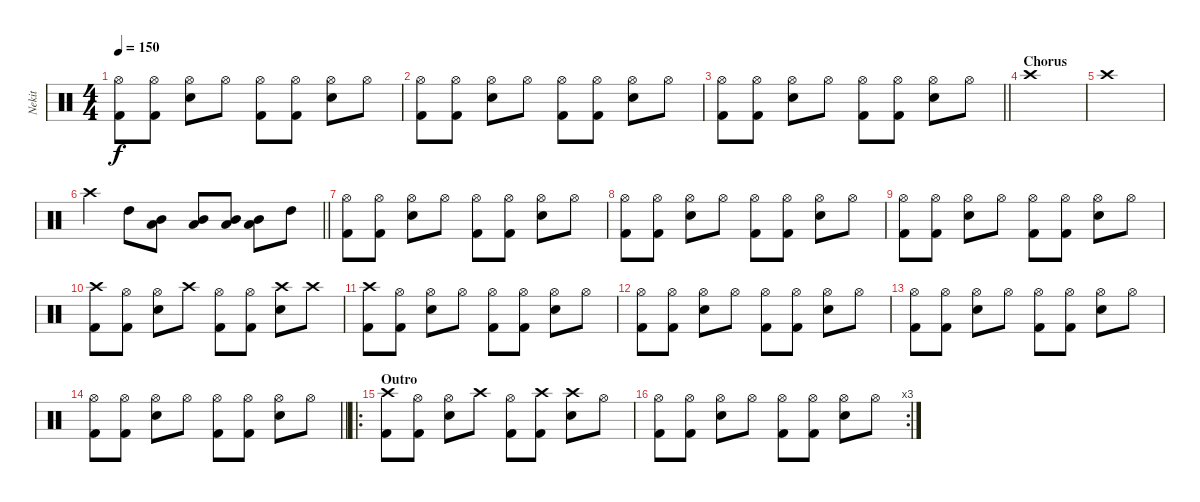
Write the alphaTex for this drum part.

\track ("Nekit" "Nekit") {instrument percussion}
\staff {score}
\articulation defaults
\ts (4 4)
\tempo 150
\clef neutral
\ks c
("Hi-Hat (open)" "Kick (hit) 2").8{dy f} ("Hi-Hat (open)" "Kick (hit) 2").8 ("Hi-Hat (open)" "Electric Snare (hit)").8 "Hi-Hat (open)".8 ("Hi-Hat (open)" "Kick (hit) 2").8 ("Hi-Hat (open)" "Kick (hit) 2").8 ("Hi-Hat (open)" "Electric Snare (hit)").8 "Hi-Hat (open)".8 |
("Hi-Hat (open)" "Kick (hit) 2").8 ("Hi-Hat (open)" "Kick (hit) 2").8 ("Hi-Hat (open)" "Electric Snare (hit)").8 "Hi-Hat (open)".8 ("Hi-Hat (open)" "Kick (hit) 2").8 ("Hi-Hat (open)" "Kick (hit) 2").8 ("Hi-Hat (open)" "Electric Snare (hit)").8 "Hi-Hat (open)".8 |
\barLineRight lightlight
("Hi-Hat (open)" "Kick (hit) 2").8 ("Hi-Hat (open)" "Kick (hit) 2").8 ("Hi-Hat (open)" "Electric Snare (hit)").8 "Hi-Hat (open)".8 ("Hi-Hat (open)" "Kick (hit) 2").8 ("Hi-Hat (open)" "Kick (hit) 2").8 ("Hi-Hat (open)" "Electric Snare (hit)").8 "Hi-Hat (open)".8 |
\section ("" "Chorus")
"Crash high (hit)".1 |
"Crash high (hit)".1 |
\barLineRight lightlight "Crash high (hit)".4 "High Tom (hit)".8
("Mid Tom (hit)" "Low Floor Tom (hit)").8 ("Mid Tom (hit)" "Low Floor Tom (hit)").8 ("Mid Tom (hit)" "Low Floor Tom (hit)").8 ("Mid Tom (hit)" "Low Floor Tom (hit)").8 "High Tom (hit)".8 |
("Hi-Hat (open)" "Kick (hit) 2").8 ("Hi-Hat (open)" "Kick (hit) 2").8 ("Hi-Hat (open)" "Electric Snare (hit)").8 "Hi-Hat (open)".8 ("Hi-Hat (open)" "Kick (hit) 2").8 ("Hi-Hat (open)" "Kick (hit) 2").8 ("Hi-Hat (open)" "Electric Snare (hit)").8 "Hi-Hat (open)".8 |
("Hi-Hat (open)" "Kick (hit) 2").8 ("Hi-Hat (open)" "Kick (hit) 2").8 ("Hi-Hat (open)" "Electric Snare (hit)").8 "Hi-Hat (open)".8 ("Hi-Hat (open)" "Kick (hit) 2").8 ("Hi-Hat (open)" "Kick (hit) 2").8 ("Hi-Hat (open)" "Electric Snare (hit)").8 "Hi-Hat (open)".8 |
("Hi-Hat (open)" "Kick (hit) 2").8 ("Hi-Hat (open)" "Kick (hit) 2").8 ("Hi-Hat (open)" "Electric Snare (hit)").8 "Hi-Hat (open)".8 ("Hi-Hat (open)" "Kick (hit) 2").8 ("Hi-Hat (open)" "Kick (hit) 2").8 ("Hi-Hat (open)" "Electric Snare (hit)").8 "Hi-Hat (open)".8 |
("Crash high (hit)" "Kick (hit) 2").8 ("Hi-Hat (open)" "Kick (hit) 2").8 ("Hi-Hat (open)" "Electric Snare (hit)").8 "Crash high (hit)".8 ("Hi-Hat (open)" "Kick (hit) 2").8 ("Hi-Hat (open)" "Kick (hit) 2").8 ("Crash high (hit)" "Electric Snare (hit)").8 "Crash high (hit)".8 |
("Crash high (hit)" "Kick (hit) 2").8 ("Hi-Hat (open)" "Kick (hit) 2").8 ("Hi-Hat (open)" "Electric Snare (hit)").8 "Hi-Hat (open)".8 ("Hi-Hat (open)" "Kick (hit) 2").8 ("Hi-Hat (open)" "Kick (hit) 2").8 ("Hi-Hat (open)" "Electric Snare (hit)").8 "Hi-Hat (open)".8 |
("Hi-Hat (open)" "Kick (hit) 2").8 ("Hi-Hat (open)" "Kick (hit) 2").8 ("Hi-Hat (open)" "Electric Snare (hit)").8 "Hi-Hat (open)".8 ("Hi-Hat (open)" "Kick (hit) 2").8 ("Hi-Hat (open)" "Kick (hit) 2").8 ("Hi-Hat (open)" "Electric Snare (hit)").8 "Hi-Hat (open)".8 |
("Hi-Hat (open)" "Kick (hit) 2").8 ("Hi-Hat (open)" "Kick (hit) 2").8 ("Hi-Hat (open)" "Electric Snare (hit)").8 "Hi-Hat (open)".8 ("Hi-Hat (open)" "Kick (hit) 2").8 ("Hi-Hat (open)" "Kick (hit) 2").8 ("Hi-Hat (open)" "Electric Snare (hit)").8 "Hi-Hat (open)".8 |
\barLineRight lightlight
("Hi-Hat (open)" "Kick (hit) 2").8 ("Hi-Hat (open)" "Kick (hit) 2").8 ("Hi-Hat (open)" "Electric Snare (hit)").8 "Hi-Hat (open)".8 ("Hi-Hat (open)" "Kick (hit) 2").8 ("Hi-Hat (open)" "Kick (hit) 2").8 ("Hi-Hat (open)" "Electric Snare (hit)").8 "Hi-Hat (open)".8 |
\ro
\section ("" "Outro")
("Crash high (hit)" "Kick (hit) 2").8 ("Hi-Hat (open)" "Kick (hit) 2").8 ("Hi-Hat (open)" "Electric Snare (hit)").8 "Crash high (hit)".8 ("Hi-Hat (open)" "Kick (hit) 2").8 ("Crash high (hit)" "Kick (hit) 2").8 ("Crash high (hit)" "Electric Snare (hit)").8 "Hi-Hat (open)".8 |
\rc 3
("Hi-Hat (open)" "Kick (hit) 2").8 ("Hi-Hat (open)" "Kick (hit) 2").8 ("Hi-Hat (open)" "Electric Snare (hit)").8 "Hi-Hat (open)".8 ("Hi-Hat (open)" "Kick (hit) 2").8 ("Hi-Hat (open)" "Kick (hit) 2").8 ("Hi-Hat (open)" "Electric Snare (hit)").8 "Hi-Hat (open)".8
